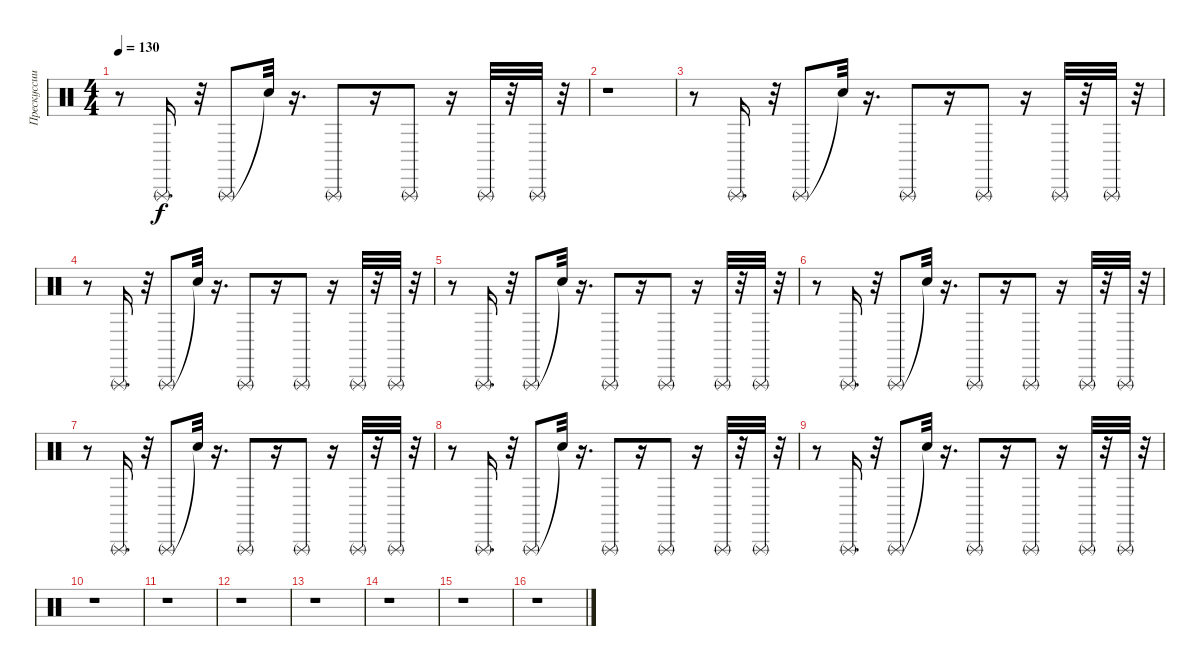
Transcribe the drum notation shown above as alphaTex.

\track ("Прескуссии 1" "Прескуссии") {instrument percussion}
\staff {score}
\articulation defaults
\ts (4 4)
\tempo 130
\clef neutral
\ks c
r.8{dy f} "Triangle (rnute)".16{d} r.32 "Triangle (rnute)".8 "Snare (hit)"{t}.32 r.16{d} "Triangle (rnute)".8 r.16 "Triangle (rnute)".8 r.16 "Triangle (rnute)".32 r.32 "Triangle (rnute)".32 r.32 |
r.1 |
r.8 "Triangle (rnute)".16{d} r.32 "Triangle (rnute)".8 "Snare (hit)"{t}.32 r.16{d} "Triangle (rnute)".8 r.16 "Triangle (rnute)".8 r.16 "Triangle (rnute)".32 r.32 "Triangle (rnute)".32 r.32 |
r.8 "Triangle (rnute)".16{d} r.32 "Triangle (rnute)".8 "Snare (hit)"{t}.32 r.16{d} "Triangle (rnute)".8 r.16 "Triangle (rnute)".8 r.16 "Triangle (rnute)".32 r.32 "Triangle (rnute)".32 r.32 |
r.8 "Triangle (rnute)".16{d} r.32 "Triangle (rnute)".8 "Snare (hit)"{t}.32 r.16{d} "Triangle (rnute)".8 r.16 "Triangle (rnute)".8 r.16 "Triangle (rnute)".32 r.32 "Triangle (rnute)".32 r.32 |
r.8 "Triangle (rnute)".16{d} r.32 "Triangle (rnute)".8 "Snare (hit)"{t}.32 r.16{d} "Triangle (rnute)".8 r.16 "Triangle (rnute)".8 r.16 "Triangle (rnute)".32 r.32 "Triangle (rnute)".32 r.32 |
r.8 "Triangle (rnute)".16{d} r.32 "Triangle (rnute)".8 "Snare (hit)"{t}.32 r.16{d} "Triangle (rnute)".8 r.16 "Triangle (rnute)".8 r.16 "Triangle (rnute)".32 r.32 "Triangle (rnute)".32 r.32 |
r.8 "Triangle (rnute)".16{d} r.32 "Triangle (rnute)".8 "Snare (hit)"{t}.32 r.16{d} "Triangle (rnute)".8 r.16 "Triangle (rnute)".8 r.16 "Triangle (rnute)".32 r.32 "Triangle (rnute)".32 r.32 |
r.8 "Triangle (rnute)".16{d} r.32 "Triangle (rnute)".8 "Snare (hit)"{t}.32 r.16{d} "Triangle (rnute)".8 r.16 "Triangle (rnute)".8 r.16 "Triangle (rnute)".32 r.32 "Triangle (rnute)".32 r.32 |
r.1 |
r.1 |
r.1 |
r.1 |
r.1 |
r.1 |
r.1
